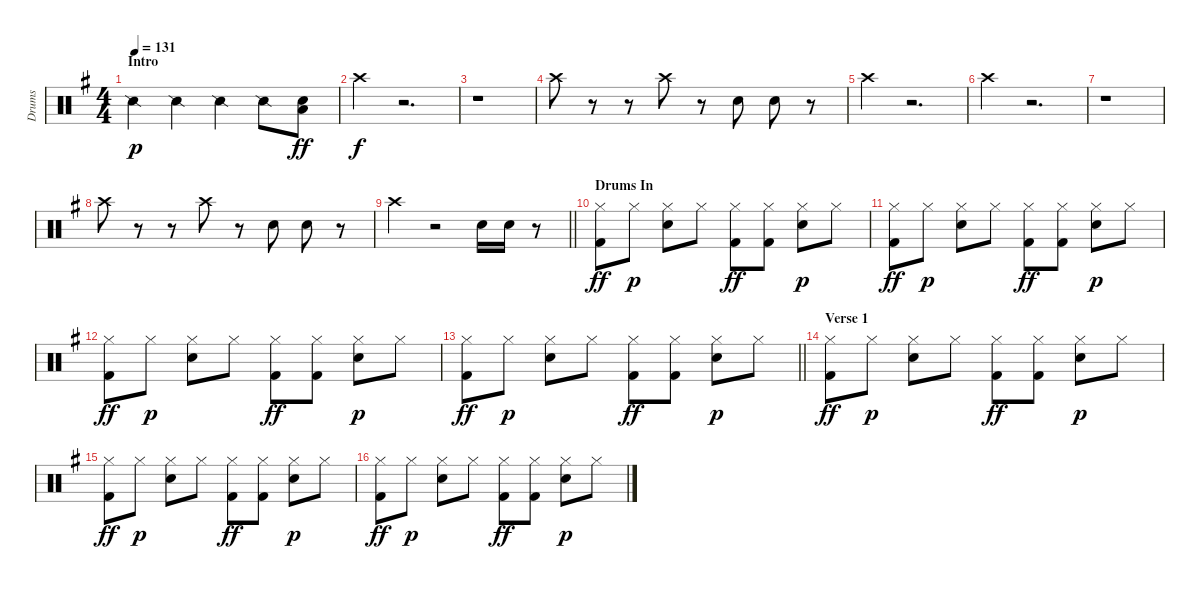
\track ("Drums" "Drums") {instrument percussion}
\staff {score}
\articulation defaults
\ts (4 4)
\section ("" "Intro")
\tempo 131
\clef neutral
\ks g "Snare (side stick) 2".4{dy p} "Snare (side stick) 2".4 "Snare (side stick) 2".4 "Snare (side stick) 2".8
("Snare (hit) 2" "Low Floor Tom (hit)").8{dy ff} |
"Crash high (hit)".4{dy f} r.2{d} |
r.1 |
"Crash high (hit)".8 r.8 r.8 "Crash high (hit)".8 r.8 "Snare (hit) 2".8 "Snare (hit) 2".8 r.8 |
"Crash high (hit)".4 r.2{d} |
"Crash high (hit)".4 r.2{d} |
r.1 |
"Crash high (hit)".8 r.8 r.8 "Crash high (hit)".8 r.8 "Snare (hit) 2".8 "Snare (hit) 2".8 r.8 |
\barLineRight lightlight "Crash high (hit)".4
r.2 "Snare (hit) 2".16 "Snare (hit) 2".16 r.8 |
\section ("" "Drums In")
("Hi-Hat (closed)" "Kick (hit) 2").8{dy ff} "Hi-Hat (closed)".8{dy p} ("Hi-Hat (closed)" "Snare (hit) 2").8 "Hi-Hat (closed)".8 ("Hi-Hat (closed)" "Kick (hit) 2").8{dy ff} ("Hi-Hat (closed)" "Kick (hit) 2").8 ("Hi-Hat (closed)" "Snare (hit) 2").8{dy p} "Hi-Hat (closed)".8 |
("Hi-Hat (closed)" "Kick (hit) 2").8{dy ff} "Hi-Hat (closed)".8{dy p} ("Hi-Hat (closed)" "Snare (hit) 2").8 "Hi-Hat (closed)".8 ("Hi-Hat (closed)" "Kick (hit) 2").8{dy ff} ("Hi-Hat (closed)" "Kick (hit) 2").8 ("Hi-Hat (closed)" "Snare (hit) 2").8{dy p} "Hi-Hat (closed)".8 |
("Hi-Hat (closed)" "Kick (hit) 2").8{dy ff} "Hi-Hat (closed)".8{dy p} ("Hi-Hat (closed)" "Snare (hit) 2").8 "Hi-Hat (closed)".8 ("Hi-Hat (closed)" "Kick (hit) 2").8{dy ff} ("Hi-Hat (closed)" "Kick (hit) 2").8 ("Hi-Hat (closed)" "Snare (hit) 2").8{dy p} "Hi-Hat (closed)".8 |
\barLineRight lightlight
("Hi-Hat (closed)" "Kick (hit) 2").8{dy ff} "Hi-Hat (closed)".8{dy p} ("Hi-Hat (closed)" "Snare (hit) 2").8 "Hi-Hat (closed)".8 ("Hi-Hat (closed)" "Kick (hit) 2").8{dy ff} ("Hi-Hat (closed)" "Kick (hit) 2").8 ("Hi-Hat (closed)" "Snare (hit) 2").8{dy p} "Hi-Hat (closed)".8 |
\section ("" "Verse 1")
("Hi-Hat (closed)" "Kick (hit) 2").8{dy ff} "Hi-Hat (closed)".8{dy p} ("Hi-Hat (closed)" "Snare (hit) 2").8 "Hi-Hat (closed)".8 ("Hi-Hat (closed)" "Kick (hit) 2").8{dy ff} ("Hi-Hat (closed)" "Kick (hit) 2").8 ("Hi-Hat (closed)" "Snare (hit) 2").8{dy p} "Hi-Hat (closed)".8 |
("Hi-Hat (closed)" "Kick (hit) 2").8{dy ff} "Hi-Hat (closed)".8{dy p} ("Hi-Hat (closed)" "Snare (hit) 2").8 "Hi-Hat (closed)".8 ("Hi-Hat (closed)" "Kick (hit) 2").8{dy ff} ("Hi-Hat (closed)" "Kick (hit) 2").8 ("Hi-Hat (closed)" "Snare (hit) 2").8{dy p} "Hi-Hat (closed)".8 |
("Hi-Hat (closed)" "Kick (hit) 2").8{dy ff} "Hi-Hat (closed)".8{dy p} ("Hi-Hat (closed)" "Snare (hit) 2").8 "Hi-Hat (closed)".8 ("Hi-Hat (closed)" "Kick (hit) 2").8{dy ff} ("Hi-Hat (closed)" "Kick (hit) 2").8 ("Hi-Hat (closed)" "Snare (hit) 2").8{dy p} "Hi-Hat (closed)".8
